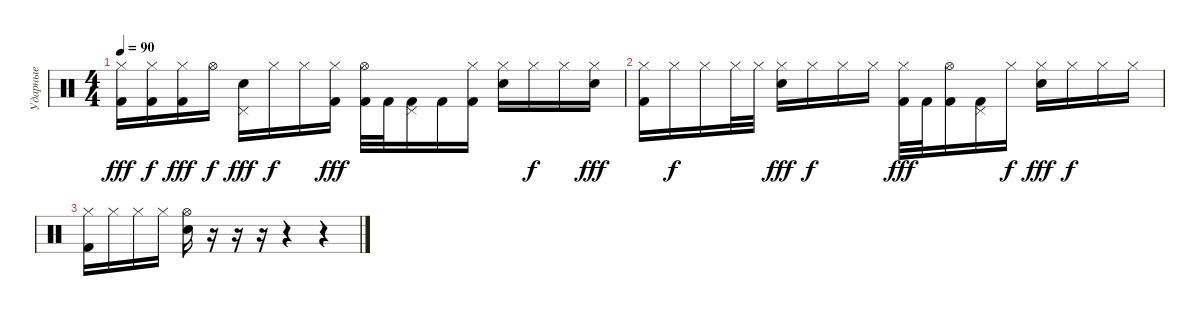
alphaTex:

\track ("Ударные" "Ударные") {instrument percussion}
\staff {score}
\articulation defaults
\ts (4 4)
\tempo 90
\clef neutral
\ks c
("Hi-Hat (closed)" "Kick (hit) 2").16{dy fff} ("Hi-Hat (closed)" "Kick (hit) 2").16{dy f} ("Hi-Hat (closed)" "Kick (hit) 2").16{dy fff} "Hi-Hat (open)".16{dy f} ("Pedal Hi-Hat (hit)" "Electric Snare (hit)").16{dy fff} "Hi-Hat (closed)".16{dy f} "Hi-Hat (closed)".16 ("Hi-Hat (closed)" "Kick (hit) 2").16{dy fff} ("Hi-Hat (open)" "Kick (hit) 2").32 "Kick (hit) 2".32 ("Pedal Hi-Hat (hit)" "Kick (hit) 2").16 "Kick (hit) 2".16 ("Hi-Hat (closed)" "Kick (hit) 2").16 ("Hi-Hat (closed)" "Electric Snare (hit)").16 "Hi-Hat (closed)".16{dy f} "Hi-Hat (closed)".16 ("Hi-Hat (closed)" "Electric Snare (hit)").16{dy fff} |
("Hi-Hat (closed)" "Kick (hit) 2").16 "Hi-Hat (closed)".16{dy f} "Hi-Hat (closed)".16 "Hi-Hat (closed)".32 "Hi-Hat (closed)".32 ("Hi-Hat (closed)" "Electric Snare (hit)").16{dy fff} "Hi-Hat (closed)".16{dy f} "Hi-Hat (closed)".16 "Hi-Hat (closed)".16 ("Hi-Hat (closed)" "Kick (hit) 2").32{dy fff} "Kick (hit) 2".32 ("Hi-Hat (open)" "Kick (hit) 2").16 ("Pedal Hi-Hat (hit)" "Kick (hit) 2").16 "Hi-Hat (closed)".16{dy f} ("Hi-Hat (closed)" "Electric Snare (hit)").16{dy fff} "Hi-Hat (closed)".16{dy f} "Hi-Hat (closed)".16 "Hi-Hat (closed)".16 |
("Hi-Hat (closed)" "Kick (hit) 2").16 "Hi-Hat (closed)".16 "Hi-Hat (closed)".16 "Hi-Hat (closed)".16 ("Hi-Hat (open)" "Electric Snare (hit)").16 r.16 r.16 r.16 r.4 r.4
